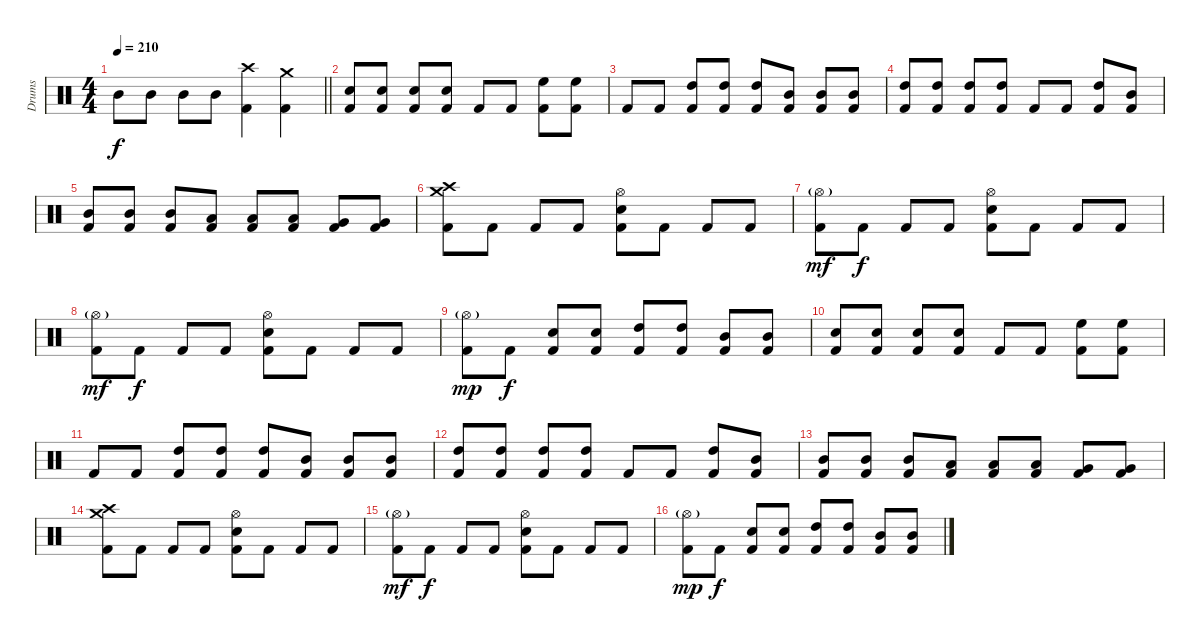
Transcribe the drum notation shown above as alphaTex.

\track ("Drums" "Drums") {instrument percussion}
\staff {score}
\articulation defaults
\ts (4 4)
\tempo 210
\clef neutral
\barLineRight lightlight
\ks c "Mid Tom (hit)".8{dy f} "Mid Tom (hit)".8 "Mid Tom (hit)".8 "Mid Tom (hit)".8
("Crash high (hit)" "Kick (hit) 2").4 ("Crash medium (hit)" "Kick (hit) 2").4 |
("Electric Snare (hit)" "Kick (hit) 2").8 ("Electric Snare (hit)" "Kick (hit) 2").8 ("Electric Snare (hit)" "Kick (hit) 2").8 ("Electric Snare (hit)" "Kick (hit) 2").8 "Kick (hit) 2".8 "Kick (hit) 2".8 ("High Floor Tom (hit)" "Kick (hit) 2").8 ("High Floor Tom (hit)" "Kick (hit) 2").8 |
"Kick (hit) 2".8 "Kick (hit) 2".8 ("High Tom (hit)" "Kick (hit) 2").8 ("High Tom (hit)" "Kick (hit) 2").8 ("High Tom (hit)" "Kick (hit) 2").8 ("Mid Tom (hit)" "Kick (hit) 2").8 ("Mid Tom (hit)" "Kick (hit) 2").8 ("Mid Tom (hit)" "Kick (hit) 2").8 |
("High Tom (hit)" "Kick (hit) 2").8 ("High Tom (hit)" "Kick (hit) 2").8 ("High Tom (hit)" "Kick (hit) 2").8 ("High Tom (hit)" "Kick (hit) 2").8 "Kick (hit) 2".8 "Kick (hit) 2".8 ("High Tom (hit)" "Kick (hit) 2").8 ("Mid Tom (hit)" "Kick (hit) 2").8 |
("Mid Tom (hit)" "Kick (hit) 2").8 ("Mid Tom (hit)" "Kick (hit) 2").8 ("Mid Tom (hit)" "Kick (hit) 2").8 ("Low Tom (hit)" "Kick (hit) 2").8 ("Low Tom (hit)" "Kick (hit) 2").8 ("Low Tom (hit)" "Kick (hit) 2").8 ("Very Low Tom (hit)" "Kick (hit) 2").8 ("Very Low Tom (hit)" "Kick (hit) 2").8 |
("Crash high (hit)" "Crash medium (hit)" "Kick (hit) 2").8 "Kick (hit) 2".8 "Kick (hit) 2".8 "Kick (hit) 2".8 ("Hi-Hat (open)" "Electric Snare (hit)" "Kick (hit) 2").8 "Kick (hit) 2".8 "Kick (hit) 2".8 "Kick (hit) 2".8 |
("Hi-Hat (open)"{g} "Kick (hit) 2").8{dy mf} "Kick (hit) 2".8{dy f} "Kick (hit) 2".8 "Kick (hit) 2".8 ("Hi-Hat (open)" "Electric Snare (hit)" "Kick (hit) 2").8 "Kick (hit) 2".8 "Kick (hit) 2".8 "Kick (hit) 2".8 |
("Hi-Hat (open)"{g} "Kick (hit) 2").8{dy mf} "Kick (hit) 2".8{dy f} "Kick (hit) 2".8 "Kick (hit) 2".8 ("Hi-Hat (open)" "Electric Snare (hit)" "Kick (hit) 2").8 "Kick (hit) 2".8 "Kick (hit) 2".8 "Kick (hit) 2".8 |
("Hi-Hat (open)"{g} "Kick (hit) 2").8{dy mp} "Kick (hit) 2".8{dy f} ("Electric Snare (hit)" "Kick (hit) 2").8 ("Electric Snare (hit)" "Kick (hit) 2").8 ("High Tom (hit)" "Kick (hit) 2").8 ("High Tom (hit)" "Kick (hit) 2").8 ("Mid Tom (hit)" "Kick (hit) 2").8 ("Mid Tom (hit)" "Kick (hit) 2").8 |
("Electric Snare (hit)" "Kick (hit) 2").8 ("Electric Snare (hit)" "Kick (hit) 2").8 ("Electric Snare (hit)" "Kick (hit) 2").8 ("Electric Snare (hit)" "Kick (hit) 2").8 "Kick (hit) 2".8 "Kick (hit) 2".8 ("High Floor Tom (hit)" "Kick (hit) 2").8 ("High Floor Tom (hit)" "Kick (hit) 2").8 |
"Kick (hit) 2".8 "Kick (hit) 2".8 ("High Tom (hit)" "Kick (hit) 2").8 ("High Tom (hit)" "Kick (hit) 2").8 ("High Tom (hit)" "Kick (hit) 2").8 ("Mid Tom (hit)" "Kick (hit) 2").8 ("Mid Tom (hit)" "Kick (hit) 2").8 ("Mid Tom (hit)" "Kick (hit) 2").8 |
("High Tom (hit)" "Kick (hit) 2").8 ("High Tom (hit)" "Kick (hit) 2").8 ("High Tom (hit)" "Kick (hit) 2").8 ("High Tom (hit)" "Kick (hit) 2").8 "Kick (hit) 2".8 "Kick (hit) 2".8 ("High Tom (hit)" "Kick (hit) 2").8 ("Mid Tom (hit)" "Kick (hit) 2").8 |
("Mid Tom (hit)" "Kick (hit) 2").8 ("Mid Tom (hit)" "Kick (hit) 2").8 ("Mid Tom (hit)" "Kick (hit) 2").8 ("Low Tom (hit)" "Kick (hit) 2").8 ("Low Tom (hit)" "Kick (hit) 2").8 ("Low Tom (hit)" "Kick (hit) 2").8 ("Very Low Tom (hit)" "Kick (hit) 2").8 ("Very Low Tom (hit)" "Kick (hit) 2").8 |
("Crash high (hit)" "Crash medium (hit)" "Kick (hit) 2").8 "Kick (hit) 2".8 "Kick (hit) 2".8 "Kick (hit) 2".8 ("Hi-Hat (open)" "Electric Snare (hit)" "Kick (hit) 2").8 "Kick (hit) 2".8 "Kick (hit) 2".8 "Kick (hit) 2".8 |
("Hi-Hat (open)"{g} "Kick (hit) 2").8{dy mf} "Kick (hit) 2".8{dy f} "Kick (hit) 2".8 "Kick (hit) 2".8 ("Hi-Hat (open)" "Electric Snare (hit)" "Kick (hit) 2").8 "Kick (hit) 2".8 "Kick (hit) 2".8 "Kick (hit) 2".8 |
("Hi-Hat (open)"{g} "Kick (hit) 2").8{dy mp} "Kick (hit) 2".8{dy f} ("Electric Snare (hit)" "Kick (hit) 2").8 ("Electric Snare (hit)" "Kick (hit) 2").8 ("High Tom (hit)" "Kick (hit) 2").8 ("High Tom (hit)" "Kick (hit) 2").8 ("Mid Tom (hit)" "Kick (hit) 2").8 ("Mid Tom (hit)" "Kick (hit) 2").8
